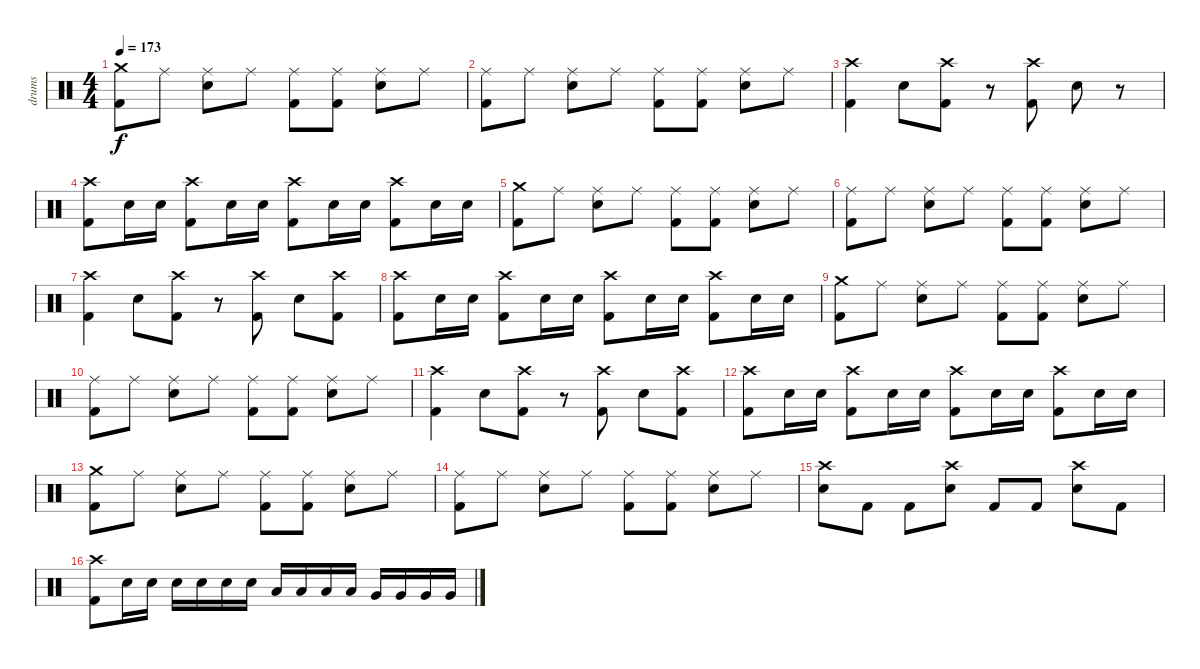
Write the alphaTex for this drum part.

\track ("drums" "drums") {instrument percussion}
\staff {score}
\articulation defaults
\ts (4 4)
\tempo 173
\clef neutral
\ks c
("Crash medium (hit)" "Kick (hit) 2").8{dy f} "Ride (middle)".8 ("Ride (middle)" "Electric Snare (hit)").8 "Ride (middle)".8 ("Ride (middle)" "Kick (hit) 2").8 ("Ride (middle)" "Kick (hit) 2").8 ("Ride (middle)" "Electric Snare (hit)").8 "Ride (middle)".8 |
("Ride (middle)" "Kick (hit) 2").8 "Ride (middle)".8 ("Ride (middle)" "Electric Snare (hit)").8 "Ride (middle)".8 ("Ride (middle)" "Kick (hit) 2").8 ("Ride (middle)" "Kick (hit) 2").8 ("Ride (middle)" "Electric Snare (hit)").8 "Ride (middle)".8 |
("Crash high (hit)" "Kick (hit) 2").4 "Electric Snare (hit)".8 ("Crash high (hit)" "Kick (hit) 2").8 r.8 ("Crash high (hit)" "Kick (hit) 2").8 "Electric Snare (hit)".8 r.8 |
("Crash high (hit)" "Kick (hit) 2").8 "Electric Snare (hit)".16 "Electric Snare (hit)".16 ("Crash high (hit)" "Kick (hit) 2").8 "Electric Snare (hit)".16 "Electric Snare (hit)".16 ("Crash high (hit)" "Kick (hit) 2").8 "Electric Snare (hit)".16 "Electric Snare (hit)".16 ("Crash high (hit)" "Kick (hit) 2").8 "Electric Snare (hit)".16 "Electric Snare (hit)".16 |
("Crash medium (hit)" "Kick (hit) 2").8 "Ride (middle)".8 ("Ride (middle)" "Electric Snare (hit)").8 "Ride (middle)".8 ("Ride (middle)" "Kick (hit) 2").8 ("Ride (middle)" "Kick (hit) 2").8 ("Ride (middle)" "Electric Snare (hit)").8 "Ride (middle)".8 |
("Ride (middle)" "Kick (hit) 2").8 "Ride (middle)".8 ("Ride (middle)" "Electric Snare (hit)").8 "Ride (middle)".8 ("Ride (middle)" "Kick (hit) 2").8 ("Ride (middle)" "Kick (hit) 2").8 ("Ride (middle)" "Electric Snare (hit)").8 "Ride (middle)".8 |
("Crash high (hit)" "Kick (hit) 2").4 "Electric Snare (hit)".8 ("Crash high (hit)" "Kick (hit) 2").8 r.8 ("Crash high (hit)" "Kick (hit) 2").8 "Electric Snare (hit)".8 ("Crash high (hit)" "Kick (hit) 2").8 |
("Crash high (hit)" "Kick (hit) 2").8 "Electric Snare (hit)".16 "Electric Snare (hit)".16 ("Crash high (hit)" "Kick (hit) 2").8 "Electric Snare (hit)".16 "Electric Snare (hit)".16 ("Crash high (hit)" "Kick (hit) 2").8 "Electric Snare (hit)".16 "Electric Snare (hit)".16 ("Crash high (hit)" "Kick (hit) 2").8 "Electric Snare (hit)".16 "Electric Snare (hit)".16 |
("Crash medium (hit)" "Kick (hit) 2").8 "Ride (middle)".8 ("Ride (middle)" "Electric Snare (hit)").8 "Ride (middle)".8 ("Ride (middle)" "Kick (hit) 2").8 ("Ride (middle)" "Kick (hit) 2").8 ("Ride (middle)" "Electric Snare (hit)").8 "Ride (middle)".8 |
("Ride (middle)" "Kick (hit) 2").8 "Ride (middle)".8 ("Ride (middle)" "Electric Snare (hit)").8 "Ride (middle)".8 ("Ride (middle)" "Kick (hit) 2").8 ("Ride (middle)" "Kick (hit) 2").8 ("Ride (middle)" "Electric Snare (hit)").8 "Ride (middle)".8 |
("Crash high (hit)" "Kick (hit) 2").4 "Electric Snare (hit)".8 ("Crash high (hit)" "Kick (hit) 2").8 r.8 ("Crash high (hit)" "Kick (hit) 2").8 "Electric Snare (hit)".8 ("Crash high (hit)" "Kick (hit) 2").8 |
("Crash high (hit)" "Kick (hit) 2").8 "Electric Snare (hit)".16 "Electric Snare (hit)".16 ("Crash high (hit)" "Kick (hit) 2").8 "Electric Snare (hit)".16 "Electric Snare (hit)".16 ("Crash high (hit)" "Kick (hit) 2").8 "Electric Snare (hit)".16 "Electric Snare (hit)".16 ("Crash high (hit)" "Kick (hit) 2").8 "Electric Snare (hit)".16 "Electric Snare (hit)".16 |
("Crash medium (hit)" "Kick (hit) 2").8 "Ride (middle)".8 ("Ride (middle)" "Electric Snare (hit)").8 "Ride (middle)".8 ("Ride (middle)" "Kick (hit) 2").8 ("Ride (middle)" "Kick (hit) 2").8 ("Ride (middle)" "Electric Snare (hit)").8 "Ride (middle)".8 |
("Ride (middle)" "Kick (hit) 2").8 "Ride (middle)".8 ("Ride (middle)" "Electric Snare (hit)").8 "Ride (middle)".8 ("Ride (middle)" "Kick (hit) 2").8 ("Ride (middle)" "Kick (hit) 2").8 ("Ride (middle)" "Electric Snare (hit)").8 "Ride (middle)".8 |
("Crash high (hit)" "Electric Snare (hit)").8 "Kick (hit) 2".8 "Kick (hit) 2".8 ("Crash high (hit)" "Electric Snare (hit)").8 "Kick (hit) 2".8 "Kick (hit) 2".8 ("Crash high (hit)" "Electric Snare (hit)").8 "Kick (hit) 2".8 |
("Crash high (hit)" "Kick (hit) 2").8 "Electric Snare (hit)".16 "Electric Snare (hit)".16 "Electric Snare (hit)".16 "Electric Snare (hit)".16 "Electric Snare (hit)".16 "Electric Snare (hit)".16 "Low Tom (hit)".16 "Low Tom (hit)".16 "Low Tom (hit)".16 "Low Tom (hit)".16 "Very Low Tom (hit)".16 "Very Low Tom (hit)".16 "Very Low Tom (hit)".16 "Very Low Tom (hit)".16
